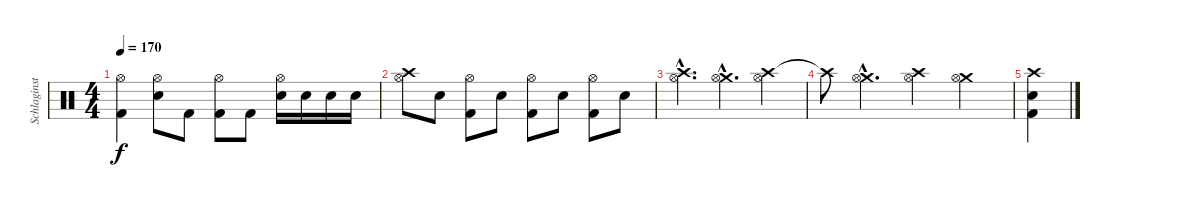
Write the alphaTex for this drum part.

\track ("Schlaginstrumente - Auswahl" "Schlaginst") {instrument percussion}
\staff {score}
\articulation defaults
\ts (4 4)
\tempo 170
\clef neutral
\ks c
("Hi-Hat (open)" "Kick (hit) 2").4{dy f} ("Hi-Hat (open)" "Electric Snare (hit)").8 "Kick (hit) 2".8 ("Hi-Hat (open)" "Kick (hit) 2").8 "Kick (hit) 2".8 ("Hi-Hat (open)" "Electric Snare (hit)").16 "Electric Snare (hit)".16 "Electric Snare (hit)".16 "Electric Snare (hit)".16 |
("Hi-Hat (open)" "Crash high (hit)").8 "Electric Snare (hit)".8 ("Hi-Hat (open)" "Kick (hit) 2").8 "Electric Snare (hit)".8 ("Hi-Hat (open)" "Kick (hit) 2").8 "Electric Snare (hit)".8 ("Hi-Hat (open)" "Kick (hit) 2").8 "Electric Snare (hit)".8 |
("Crash high (hit)"{hac} "Hi-Hat (open)"{hac}).4{d} ("Crash medium (hit)"{hac} "Hi-Hat (open)"{hac}).4{d} ("Crash high (hit)" "Hi-Hat (open)").4 |
"Crash high (hit)"{t}.8 ("Crash medium (hit)"{hac} "Hi-Hat (open)"{hac}).4{d} ("Crash high (hit)" "Hi-Hat (open)").4 ("Crash medium (hit)" "Hi-Hat (open)").4 |
("Crash high (hit)" "Electric Snare (hit)" "Kick (hit) 2").4
